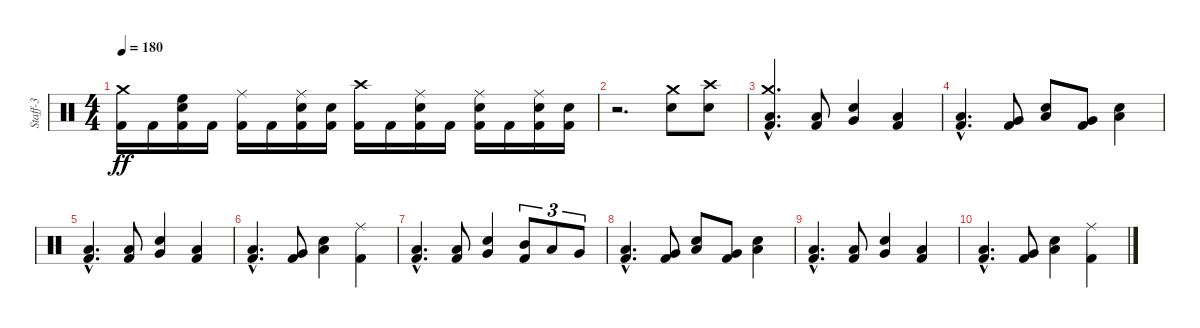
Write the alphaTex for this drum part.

\track ("Staff-3" "Staff-3") {instrument percussion}
\staff {score}
\articulation defaults
\ts (4 4)
\tempo 180
\clef neutral
\ks c
("Kick (hit) 2" "Crash medium (hit)").16{dy ff} "Kick (hit) 2".16 ("Kick (hit) 2" "Electric Snare (hit)" "High Floor Tom (hit)").16 "Kick (hit) 2".16 ("Kick (hit) 2" "Ride (middle)").16 "Kick (hit) 2".16 ("Kick (hit) 2" "Electric Snare (hit)" "Ride (middle)").16 ("Kick (hit) 2" "Electric Snare (hit)").16 ("Kick (hit) 2" "Crash high (hit)").16 "Kick (hit) 2".16 ("Kick (hit) 2" "Electric Snare (hit)" "Ride (middle)").16 "Kick (hit) 2".16 ("Kick (hit) 2" "Electric Snare (hit)" "Ride (middle)").16 "Kick (hit) 2".16 ("Kick (hit) 2" "Electric Snare (hit)" "Ride (middle)").16 ("Kick (hit) 2" "Electric Snare (hit)").16 |
r.2{d} ("Snare (hit) 2" "Crash medium (hit)").8 ("Snare (hit) 2" "Crash high (hit)").8 |
("Kick (hit) 2"{hac} "Low Tom (hit)"{hac} "Crash medium (hit)"{hac}).4{d balance 8} ("Kick (hit) 2" "Low Tom (hit)").8{balance 1} ("Snare (hit) 2" "Very Low Tom (hit)").4{balance 15} ("Kick (hit) 2" "Low Tom (hit)").4{balance 1} |
("Kick (hit) 2"{hac} "Low Tom (hit)"{hac}).4{d balance 8} ("Kick (hit) 2" "Very Low Tom (hit)").8{balance 15} ("Snare (hit) 2" "Low Floor Tom (hit)").8{balance 1} ("Kick (hit) 2" "Very Low Tom (hit)").8{balance 8} ("Snare (hit) 2" "Low Floor Tom (hit)").4{balance 15} |
("Kick (hit) 2"{hac} "Low Tom (hit)"{hac}).4{d balance 8} ("Kick (hit) 2" "Low Tom (hit)").8{balance 15} ("Snare (hit) 2" "Very Low Tom (hit)").4{balance 1} ("Kick (hit) 2" "Low Tom (hit)").4{balance 15} |
("Kick (hit) 2"{hac} "Low Tom (hit)"{hac}).4{d balance 8} ("Kick (hit) 2" "Very Low Tom (hit)").8{balance 1} ("Snare (hit) 2" "Low Floor Tom (hit)").4{balance 15} ("Kick (hit) 2" "Ride (middle)").4{balance 1} |
("Kick (hit) 2"{hac} "Low Tom (hit)"{hac}).4{d balance 8} ("Kick (hit) 2" "Low Tom (hit)").8{balance 1} ("Snare (hit) 2" "Very Low Tom (hit)").4{balance 15} ("Kick (hit) 2" "Mid Tom (hit)").8{tu (3 2) balance 1} "Low Tom (hit)".8{tu (3 2)} "Very Low Tom (hit)".8{tu (3 2)} |
("Kick (hit) 2"{hac} "Low Tom (hit)"{hac}).4{d balance 8} ("Kick (hit) 2" "Very Low Tom (hit)").8{balance 15} ("Snare (hit) 2" "Low Floor Tom (hit)").8{balance 1} ("Kick (hit) 2" "Very Low Tom (hit)").8{balance 8} ("Snare (hit) 2" "Low Floor Tom (hit)").4{balance 15} |
("Kick (hit) 2"{hac} "Low Tom (hit)"{hac}).4{d balance 8} ("Kick (hit) 2" "Low Tom (hit)").8{balance 15} ("Snare (hit) 2" "Very Low Tom (hit)").4{balance 1} ("Kick (hit) 2" "Low Tom (hit)").4{balance 15} |
("Kick (hit) 2"{hac} "Low Tom (hit)"{hac}).4{d balance 8} ("Kick (hit) 2" "Very Low Tom (hit)").8{balance 1} ("Snare (hit) 2" "Low Floor Tom (hit)").4{balance 15} ("Kick (hit) 2" "Ride (middle)").4{balance 1}
